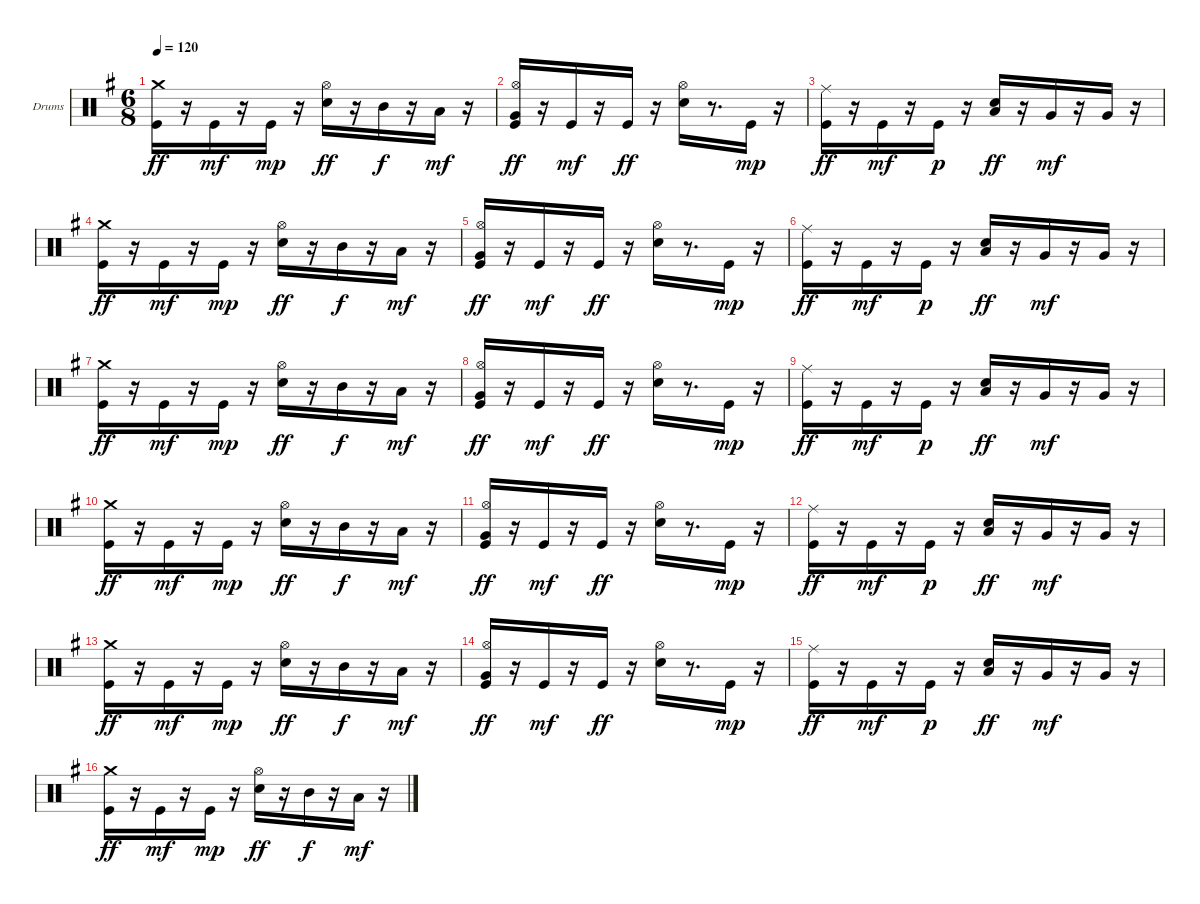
\bracketExtendMode groupsimilarinstruments
\firstSystemTrackNameOrientation horizontal
\otherSystemsTrackNameOrientation horizontal
\track ("Drumkit" "Drums") {instrument percussion}
\staff {score}
\articulation defaults
\ts (6 8)
\tempo 120
\clef neutral
\ks eminor
("Crash medium (hit)" "Kick (hit)").16{dy ff} r.16 "Kick (hit)".16{dy mf} r.16 "Kick (hit)".16{dy mp} r.16 ("Hi-Hat (open)" "Snare (hit) 2").16{dy ff} r.16 "Mid Tom (hit)".16{dy f} r.16 "Low Tom (hit)".16{dy mf} r.16 |
("Hi-Hat (open)" "Very Low Tom (hit)" "Kick (hit)").16{dy ff} r.16 "Kick (hit)".16{dy mf} r.16 "Kick (hit)".16{dy ff} r.16 ("Hi-Hat (open)" "Snare (hit) 2").16 r.8{d} "Kick (hit)".16{dy mp} r.16 |
("Ride (middle)" "Kick (hit)").16{dy ff} r.16 "Kick (hit)".16{dy mf} r.16 "Kick (hit)".16{dy p} r.16 ("Low Tom (hit)" "Snare (hit) 2").16{dy ff} r.16 "Very Low Tom (hit)".16{dy mf} r.16 "Very Low Tom (hit)".16 r.16 |
("Crash medium (hit)" "Kick (hit)").16{dy ff} r.16 "Kick (hit)".16{dy mf} r.16 "Kick (hit)".16{dy mp} r.16 ("Hi-Hat (open)" "Snare (hit) 2").16{dy ff} r.16 "Mid Tom (hit)".16{dy f} r.16 "Low Tom (hit)".16{dy mf} r.16 |
("Hi-Hat (open)" "Very Low Tom (hit)" "Kick (hit)").16{dy ff} r.16 "Kick (hit)".16{dy mf} r.16 "Kick (hit)".16{dy ff} r.16 ("Hi-Hat (open)" "Snare (hit) 2").16 r.8{d} "Kick (hit)".16{dy mp} r.16 |
("Ride (middle)" "Kick (hit)").16{dy ff} r.16 "Kick (hit)".16{dy mf} r.16 "Kick (hit)".16{dy p} r.16 ("Low Tom (hit)" "Snare (hit) 2").16{dy ff} r.16 "Very Low Tom (hit)".16{dy mf} r.16 "Very Low Tom (hit)".16 r.16 |
("Crash medium (hit)" "Kick (hit)").16{dy ff} r.16 "Kick (hit)".16{dy mf} r.16 "Kick (hit)".16{dy mp} r.16 ("Hi-Hat (open)" "Snare (hit) 2").16{dy ff} r.16 "Mid Tom (hit)".16{dy f} r.16 "Low Tom (hit)".16{dy mf} r.16 |
("Hi-Hat (open)" "Very Low Tom (hit)" "Kick (hit)").16{dy ff} r.16 "Kick (hit)".16{dy mf} r.16 "Kick (hit)".16{dy ff} r.16 ("Hi-Hat (open)" "Snare (hit) 2").16 r.8{d} "Kick (hit)".16{dy mp} r.16 |
("Ride (middle)" "Kick (hit)").16{dy ff} r.16 "Kick (hit)".16{dy mf} r.16 "Kick (hit)".16{dy p} r.16 ("Low Tom (hit)" "Snare (hit) 2").16{dy ff} r.16 "Very Low Tom (hit)".16{dy mf} r.16 "Very Low Tom (hit)".16 r.16 |
("Crash medium (hit)" "Kick (hit)").16{dy ff} r.16 "Kick (hit)".16{dy mf} r.16 "Kick (hit)".16{dy mp} r.16 ("Hi-Hat (open)" "Snare (hit) 2").16{dy ff} r.16 "Mid Tom (hit)".16{dy f} r.16 "Low Tom (hit)".16{dy mf} r.16 |
("Hi-Hat (open)" "Very Low Tom (hit)" "Kick (hit)").16{dy ff} r.16 "Kick (hit)".16{dy mf} r.16 "Kick (hit)".16{dy ff} r.16 ("Hi-Hat (open)" "Snare (hit) 2").16 r.8{d} "Kick (hit)".16{dy mp} r.16 |
("Ride (middle)" "Kick (hit)").16{dy ff} r.16 "Kick (hit)".16{dy mf} r.16 "Kick (hit)".16{dy p} r.16 ("Low Tom (hit)" "Snare (hit) 2").16{dy ff} r.16 "Very Low Tom (hit)".16{dy mf} r.16 "Very Low Tom (hit)".16 r.16 |
("Crash medium (hit)" "Kick (hit)").16{dy ff} r.16 "Kick (hit)".16{dy mf} r.16 "Kick (hit)".16{dy mp} r.16 ("Hi-Hat (open)" "Snare (hit) 2").16{dy ff} r.16 "Mid Tom (hit)".16{dy f} r.16 "Low Tom (hit)".16{dy mf} r.16 |
("Hi-Hat (open)" "Very Low Tom (hit)" "Kick (hit)").16{dy ff} r.16 "Kick (hit)".16{dy mf} r.16 "Kick (hit)".16{dy ff} r.16 ("Hi-Hat (open)" "Snare (hit) 2").16 r.8{d} "Kick (hit)".16{dy mp} r.16 |
("Ride (middle)" "Kick (hit)").16{dy ff} r.16 "Kick (hit)".16{dy mf} r.16 "Kick (hit)".16{dy p} r.16 ("Low Tom (hit)" "Snare (hit) 2").16{dy ff} r.16 "Very Low Tom (hit)".16{dy mf} r.16 "Very Low Tom (hit)".16 r.16 |
("Crash medium (hit)" "Kick (hit)").16{dy ff} r.16 "Kick (hit)".16{dy mf} r.16 "Kick (hit)".16{dy mp} r.16 ("Hi-Hat (open)" "Snare (hit) 2").16{dy ff} r.16 "Mid Tom (hit)".16{dy f} r.16 "Low Tom (hit)".16{dy mf} r.16
